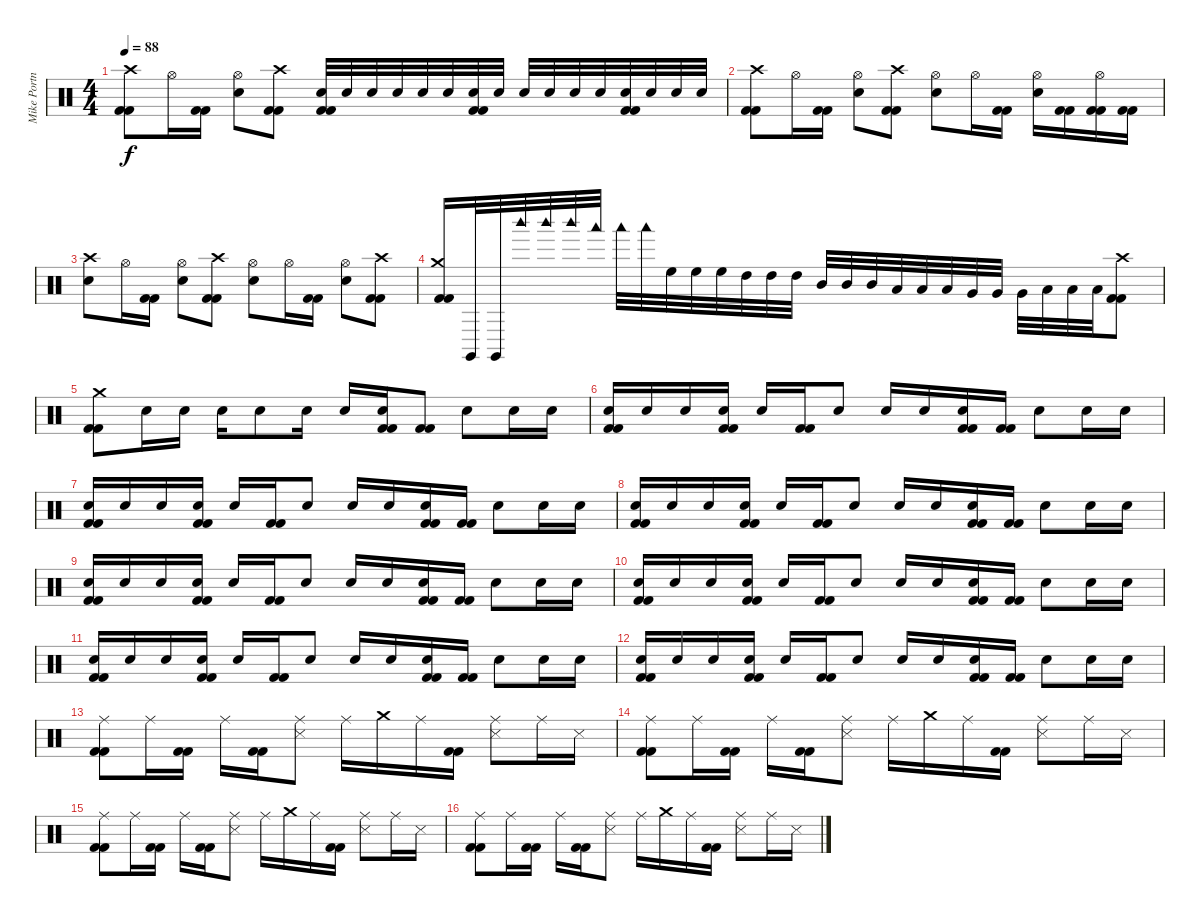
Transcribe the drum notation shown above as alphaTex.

\track ("Mike Portnoy" "Mike Portn") {instrument percussion}
\staff {score}
\articulation defaults
\ts (4 4)
\tempo 88
\clef neutral
\ks c
("Crash high (hit)" "Kick (hit) 2" "Kick (hit) 2").8{dy f} "Hi-Hat (open)".16 ("Kick (hit) 2" "Kick (hit) 2").16 ("Hi-Hat (open)" "Snare (hit) 2").8 ("Crash high (hit)" "Kick (hit) 2" "Kick (hit) 2").8 ("Snare (hit) 2" "Kick (hit) 2" "Kick (hit) 2").32 "Snare (hit) 2".32 "Snare (hit) 2".32 "Snare (hit) 2".32 "Snare (hit) 2".32 "Snare (hit) 2".32 ("Snare (hit) 2" "Kick (hit) 2" "Kick (hit) 2").32 "Snare (hit) 2".32 "Snare (hit) 2".32 "Snare (hit) 2".32 "Snare (hit) 2".32 "Snare (hit) 2".32 ("Snare (hit) 2" "Kick (hit) 2" "Kick (hit) 2").32 "Snare (hit) 2".32 "Snare (hit) 2".32 "Snare (hit) 2".32 |
("Crash high (hit)" "Kick (hit) 2" "Kick (hit) 2").8 "Hi-Hat (open)".16 ("Kick (hit) 2" "Kick (hit) 2").16 ("Hi-Hat (open)" "Snare (hit) 2").8 ("Crash high (hit)" "Kick (hit) 2" "Kick (hit) 2").8 ("Hi-Hat (open)" "Snare (hit) 2").8 "Hi-Hat (open)".16 ("Kick (hit) 2" "Kick (hit) 2").16 ("Hi-Hat (open)" "Snare (hit) 2").16 ("Kick (hit) 2" "Kick (hit) 2").16 ("Hi-Hat (open)" "Kick (hit) 2" "Kick (hit) 2").16 ("Kick (hit) 2" "Kick (hit) 2").16 |
("Crash high (hit)" "Snare (hit) 2").8 "Hi-Hat (open)".16 ("Kick (hit) 2" "Kick (hit) 2").16 ("Hi-Hat (open)" "Snare (hit) 2").8 ("Crash high (hit)" "Kick (hit) 2" "Kick (hit) 2").8 ("Hi-Hat (open)" "Snare (hit) 2").8 "Hi-Hat (open)".16 ("Kick (hit) 2" "Kick (hit) 2").16 ("Hi-Hat (open)" "Snare (hit) 2").8 ("Crash high (hit)" "Kick (hit) 2" "Kick (hit) 2").8 |
("Crash medium (hit)" "Kick (hit) 2" "Kick (hit) 2").16 "Claves (hit)".32 "Claves (hit)".32 "Woodblock high (hit)".32 "Woodblock high (hit)".32 "Woodblock high (hit)".32 "Woodblock low (hit)".32 "Woodblock low (hit)".32 "Woodblock low (hit)".32 "High Floor Tom (hit)".32 "High Floor Tom (hit)".32 "High Floor Tom (hit)".32 "High Tom (hit)".32 "High Tom (hit)".32 "High Tom (hit)".32 "Mid Tom (hit)".32 "Mid Tom (hit)".32 "Mid Tom (hit)".32 "Low Tom (hit)".32 "Low Tom (hit)".32 "Low Tom (hit)".32 "Very Low Tom (hit)".32 "Very Low Tom (hit)".32 "Very Low Tom (hit)".32 "Low Floor Tom (hit)".32 "Low Floor Tom (hit)".32 "Low Floor Tom (hit)".32 ("Crash high (hit)" "Kick (hit) 2" "Kick (hit) 2").8 |
("Crash medium (hit)" "Kick (hit) 2" "Kick (hit) 2").8 "Snare (hit) 2".16 "Snare (hit) 2".16 "Snare (hit) 2".16 "Snare (hit) 2".8 "Snare (hit) 2".16 "Snare (hit) 2".16 ("Snare (hit) 2" "Kick (hit) 2" "Kick (hit) 2").16 ("Kick (hit) 2" "Kick (hit) 2").8 "Snare (hit) 2".8 "Snare (hit) 2".16 "Snare (hit) 2".16 |
("Snare (hit) 2" "Kick (hit) 2" "Kick (hit) 2").16 "Snare (hit) 2".16 "Snare (hit) 2".16 ("Snare (hit) 2" "Kick (hit) 2" "Kick (hit) 2").16 "Snare (hit) 2".16 ("Kick (hit) 2" "Kick (hit) 2").16 "Snare (hit) 2".8 "Snare (hit) 2".16 "Snare (hit) 2".16 ("Snare (hit) 2" "Kick (hit) 2" "Kick (hit) 2").16 ("Kick (hit) 2" "Kick (hit) 2").16 "Snare (hit) 2".8 "Snare (hit) 2".16 "Snare (hit) 2".16 |
("Snare (hit) 2" "Kick (hit) 2" "Kick (hit) 2").16 "Snare (hit) 2".16 "Snare (hit) 2".16 ("Snare (hit) 2" "Kick (hit) 2" "Kick (hit) 2").16 "Snare (hit) 2".16 ("Kick (hit) 2" "Kick (hit) 2").16 "Snare (hit) 2".8 "Snare (hit) 2".16 "Snare (hit) 2".16 ("Snare (hit) 2" "Kick (hit) 2" "Kick (hit) 2").16 ("Kick (hit) 2" "Kick (hit) 2").16 "Snare (hit) 2".8 "Snare (hit) 2".16 "Snare (hit) 2".16 |
("Snare (hit) 2" "Kick (hit) 2" "Kick (hit) 2").16 "Snare (hit) 2".16 "Snare (hit) 2".16 ("Snare (hit) 2" "Kick (hit) 2" "Kick (hit) 2").16 "Snare (hit) 2".16 ("Kick (hit) 2" "Kick (hit) 2").16 "Snare (hit) 2".8 "Snare (hit) 2".16 "Snare (hit) 2".16 ("Snare (hit) 2" "Kick (hit) 2" "Kick (hit) 2").16 ("Kick (hit) 2" "Kick (hit) 2").16 "Snare (hit) 2".8 "Snare (hit) 2".16 "Snare (hit) 2".16 |
("Snare (hit) 2" "Kick (hit) 2" "Kick (hit) 2").16 "Snare (hit) 2".16 "Snare (hit) 2".16 ("Snare (hit) 2" "Kick (hit) 2" "Kick (hit) 2").16 "Snare (hit) 2".16 ("Kick (hit) 2" "Kick (hit) 2").16 "Snare (hit) 2".8 "Snare (hit) 2".16 "Snare (hit) 2".16 ("Snare (hit) 2" "Kick (hit) 2" "Kick (hit) 2").16 ("Kick (hit) 2" "Kick (hit) 2").16 "Snare (hit) 2".8 "Snare (hit) 2".16 "Snare (hit) 2".16 |
("Snare (hit) 2" "Kick (hit) 2" "Kick (hit) 2").16 "Snare (hit) 2".16 "Snare (hit) 2".16 ("Snare (hit) 2" "Kick (hit) 2" "Kick (hit) 2").16 "Snare (hit) 2".16 ("Kick (hit) 2" "Kick (hit) 2").16 "Snare (hit) 2".8 "Snare (hit) 2".16 "Snare (hit) 2".16 ("Snare (hit) 2" "Kick (hit) 2" "Kick (hit) 2").16 ("Kick (hit) 2" "Kick (hit) 2").16 "Snare (hit) 2".8 "Snare (hit) 2".16 "Snare (hit) 2".16 |
("Snare (hit) 2" "Kick (hit) 2" "Kick (hit) 2").16 "Snare (hit) 2".16 "Snare (hit) 2".16 ("Snare (hit) 2" "Kick (hit) 2" "Kick (hit) 2").16 "Snare (hit) 2".16 ("Kick (hit) 2" "Kick (hit) 2").16 "Snare (hit) 2".8 "Snare (hit) 2".16 "Snare (hit) 2".16 ("Snare (hit) 2" "Kick (hit) 2" "Kick (hit) 2").16 ("Kick (hit) 2" "Kick (hit) 2").16 "Snare (hit) 2".8 "Snare (hit) 2".16 "Snare (hit) 2".16 |
("Snare (hit) 2" "Kick (hit) 2" "Kick (hit) 2").16 "Snare (hit) 2".16 "Snare (hit) 2".16 ("Snare (hit) 2" "Kick (hit) 2" "Kick (hit) 2").16 "Snare (hit) 2".16 ("Kick (hit) 2" "Kick (hit) 2").16 "Snare (hit) 2".8 "Snare (hit) 2".16 "Snare (hit) 2".16 ("Snare (hit) 2" "Kick (hit) 2" "Kick (hit) 2").16 ("Kick (hit) 2" "Kick (hit) 2").16 "Snare (hit) 2".8 "Snare (hit) 2".16 "Snare (hit) 2".16 |
("Ride (middle)" "Kick (hit) 2" "Kick (hit) 2").8 "Ride (middle)".16 ("Kick (hit) 2" "Kick (hit) 2").16 "Ride (middle)".16 ("Kick (hit) 2" "Kick (hit) 2").16 ("Ride (middle)" "Snare (side stick) 3").8 "Ride (middle)".16 "Crash medium (hit)".16 "Ride (middle)".16 ("Kick (hit) 2" "Kick (hit) 2").16 ("Ride (middle)" "Snare (side stick) 3").8 "Ride (middle)".16 "Snare (side stick) 3".16 |
("Ride (middle)" "Kick (hit) 2" "Kick (hit) 2").8 "Ride (middle)".16 ("Kick (hit) 2" "Kick (hit) 2").16 "Ride (middle)".16 ("Kick (hit) 2" "Kick (hit) 2").16 ("Ride (middle)" "Snare (side stick) 3").8 "Ride (middle)".16 "Crash medium (hit)".16 "Ride (middle)".16 ("Kick (hit) 2" "Kick (hit) 2").16 ("Ride (middle)" "Snare (side stick) 3").8 "Ride (middle)".16 "Snare (side stick) 3".16 |
("Ride (middle)" "Kick (hit) 2" "Kick (hit) 2").8 "Ride (middle)".16 ("Kick (hit) 2" "Kick (hit) 2").16 "Ride (middle)".16 ("Kick (hit) 2" "Kick (hit) 2").16 ("Ride (middle)" "Snare (side stick) 3").8 "Ride (middle)".16 "Crash medium (hit)".16 "Ride (middle)".16 ("Kick (hit) 2" "Kick (hit) 2").16 ("Ride (middle)" "Snare (side stick) 3").8 "Ride (middle)".16 "Snare (side stick) 3".16 |
("Ride (middle)" "Kick (hit) 2" "Kick (hit) 2").8 "Ride (middle)".16 ("Kick (hit) 2" "Kick (hit) 2").16 "Ride (middle)".16 ("Kick (hit) 2" "Kick (hit) 2").16 ("Ride (middle)" "Snare (side stick) 3").8 "Ride (middle)".16 "Crash medium (hit)".16 "Ride (middle)".16 ("Kick (hit) 2" "Kick (hit) 2").16 ("Ride (middle)" "Snare (side stick) 3").8 "Ride (middle)".16 "Snare (side stick) 3".16
